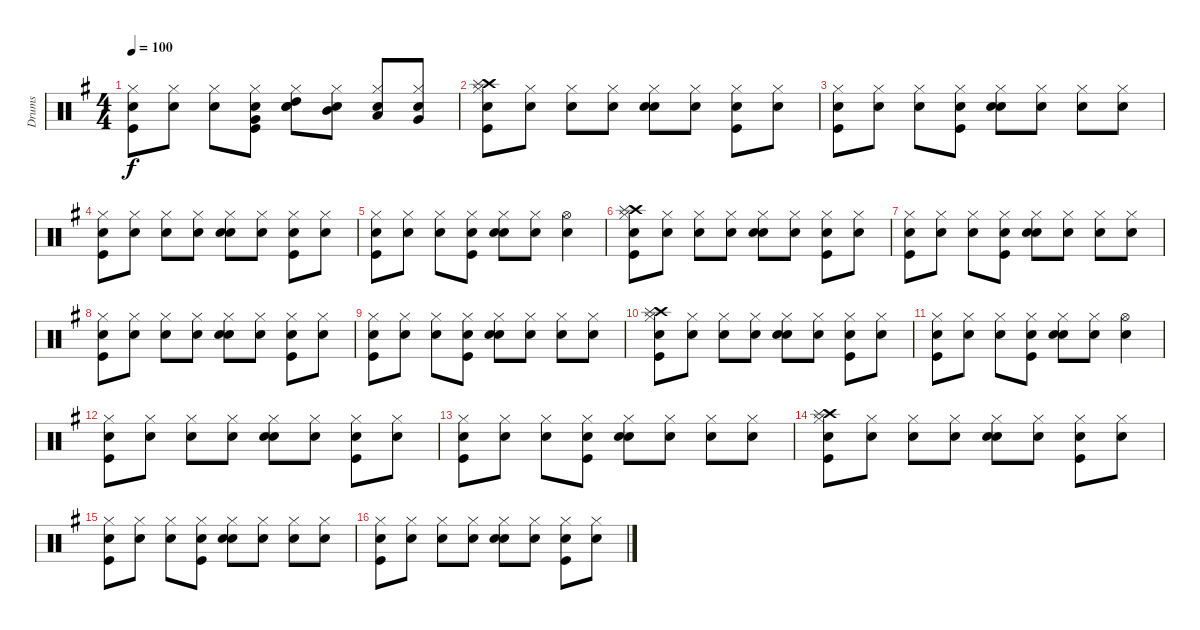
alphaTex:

\track ("Drums" "Drums") {instrument percussion}
\staff {score}
\articulation defaults
\ts (4 4)
\tempo 100
\clef neutral
\ks g
("Snare (hit)" "Kick (hit)" "Hi-Hat (closed)").8{dy f} ("Snare (hit)" "Hi-Hat (closed)").8 ("Snare (hit)" "Hi-Hat (closed)").8 ("Snare (hit)" "Very Low Tom (hit)" "Kick (hit)" "Hi-Hat (closed)").8 ("Snare (hit)" "High Tom (hit)" "Snare (hit) 2" "Hi-Hat (closed)").8 ("Snare (hit)" "Mid Tom (hit)" "Hi-Hat (closed)").8 ("Snare (hit)" "Low Tom (hit)" "Hi-Hat (closed)").8 ("Snare (hit)" "Very Low Tom (hit)" "Hi-Hat (closed)").8 |
("Snare (hit)" "Kick (hit)" "Crash high (hit)" "Splash (hit)" "Hi-Hat (closed)").8 ("Snare (hit)" "Hi-Hat (closed)").8 ("Snare (hit)" "Hi-Hat (closed)").8 ("Snare (hit)" "Hi-Hat (closed)").8 ("Snare (hit)" "Snare (hit) 2" "Hi-Hat (closed)").8 ("Snare (hit)" "Hi-Hat (closed)").8 ("Snare (hit)" "Kick (hit)" "Hi-Hat (closed)").8 ("Snare (hit)" "Hi-Hat (closed)").8 |
("Snare (hit)" "Kick (hit)" "Hi-Hat (closed)").8 ("Snare (hit)" "Hi-Hat (closed)").8 ("Snare (hit)" "Hi-Hat (closed)").8 ("Snare (hit)" "Kick (hit)" "Hi-Hat (closed)").8 ("Snare (hit)" "Snare (hit) 2" "Hi-Hat (closed)").8 ("Snare (hit)" "Hi-Hat (closed)").8 ("Snare (hit)" "Hi-Hat (closed)").8 ("Snare (hit)" "Hi-Hat (closed)").8 |
("Snare (hit)" "Kick (hit)" "Hi-Hat (closed)").8 ("Snare (hit)" "Hi-Hat (closed)").8 ("Snare (hit)" "Hi-Hat (closed)").8 ("Snare (hit)" "Hi-Hat (closed)").8 ("Snare (hit)" "Snare (hit) 2" "Hi-Hat (closed)").8 ("Snare (hit)" "Hi-Hat (closed)").8 ("Snare (hit)" "Kick (hit)" "Hi-Hat (closed)").8 ("Snare (hit)" "Hi-Hat (closed)").8 |
("Snare (hit)" "Kick (hit)" "Hi-Hat (closed)").8 ("Snare (hit)" "Hi-Hat (closed)").8 ("Snare (hit)" "Hi-Hat (closed)").8 ("Snare (hit)" "Kick (hit)" "Hi-Hat (closed)").8 ("Snare (hit)" "Snare (hit) 2" "Hi-Hat (closed)").8 ("Snare (hit)" "Hi-Hat (closed)").8 ("Snare (hit)" "Hi-Hat (open)").4 |
("Snare (hit)" "Kick (hit)" "Crash high (hit)" "Splash (hit)" "Hi-Hat (closed)").8 ("Snare (hit)" "Hi-Hat (closed)").8 ("Snare (hit)" "Hi-Hat (closed)").8 ("Snare (hit)" "Hi-Hat (closed)").8 ("Snare (hit)" "Snare (hit) 2" "Hi-Hat (closed)").8 ("Snare (hit)" "Hi-Hat (closed)").8 ("Snare (hit)" "Kick (hit)" "Hi-Hat (closed)").8 ("Snare (hit)" "Hi-Hat (closed)").8 |
("Snare (hit)" "Kick (hit)" "Hi-Hat (closed)").8 ("Snare (hit)" "Hi-Hat (closed)").8 ("Snare (hit)" "Hi-Hat (closed)").8 ("Snare (hit)" "Kick (hit)" "Hi-Hat (closed)").8 ("Snare (hit)" "Snare (hit) 2" "Hi-Hat (closed)").8 ("Snare (hit)" "Hi-Hat (closed)").8 ("Snare (hit)" "Hi-Hat (closed)").8 ("Snare (hit)" "Hi-Hat (closed)").8 |
("Snare (hit)" "Kick (hit)" "Hi-Hat (closed)").8 ("Snare (hit)" "Hi-Hat (closed)").8 ("Snare (hit)" "Hi-Hat (closed)").8 ("Snare (hit)" "Hi-Hat (closed)").8 ("Snare (hit)" "Snare (hit) 2" "Hi-Hat (closed)").8 ("Snare (hit)" "Hi-Hat (closed)").8 ("Snare (hit)" "Kick (hit)" "Hi-Hat (closed)").8 ("Snare (hit)" "Hi-Hat (closed)").8 |
("Snare (hit)" "Kick (hit)" "Hi-Hat (closed)").8 ("Snare (hit)" "Hi-Hat (closed)").8 ("Snare (hit)" "Hi-Hat (closed)").8 ("Snare (hit)" "Kick (hit)" "Hi-Hat (closed)").8 ("Snare (hit)" "Snare (hit) 2" "Hi-Hat (closed)").8 ("Snare (hit)" "Hi-Hat (closed)").8 ("Snare (hit)" "Hi-Hat (closed)").8 ("Snare (hit)" "Hi-Hat (closed)").8 |
("Snare (hit)" "Kick (hit)" "Crash high (hit)" "Splash (hit)" "Hi-Hat (closed)").8 ("Snare (hit)" "Hi-Hat (closed)").8 ("Snare (hit)" "Hi-Hat (closed)").8 ("Snare (hit)" "Hi-Hat (closed)").8 ("Snare (hit)" "Snare (hit) 2" "Hi-Hat (closed)").8 ("Snare (hit)" "Hi-Hat (closed)").8 ("Snare (hit)" "Kick (hit)" "Hi-Hat (closed)").8 ("Snare (hit)" "Hi-Hat (closed)").8 |
("Snare (hit)" "Kick (hit)" "Hi-Hat (closed)").8 ("Snare (hit)" "Hi-Hat (closed)").8 ("Snare (hit)" "Hi-Hat (closed)").8 ("Snare (hit)" "Kick (hit)" "Hi-Hat (closed)").8 ("Snare (hit)" "Snare (hit) 2" "Hi-Hat (closed)").8 ("Snare (hit)" "Hi-Hat (closed)").8 ("Snare (hit)" "Hi-Hat (open)").4 |
("Snare (hit)" "Kick (hit)" "Hi-Hat (closed)").8 ("Snare (hit)" "Hi-Hat (closed)").8 ("Snare (hit)" "Hi-Hat (closed)").8 ("Snare (hit)" "Hi-Hat (closed)").8 ("Snare (hit)" "Snare (hit) 2" "Hi-Hat (closed)").8 ("Snare (hit)" "Hi-Hat (closed)").8 ("Snare (hit)" "Kick (hit)" "Hi-Hat (closed)").8 ("Snare (hit)" "Hi-Hat (closed)").8 |
("Snare (hit)" "Kick (hit)" "Hi-Hat (closed)").8 ("Snare (hit)" "Hi-Hat (closed)").8 ("Snare (hit)" "Hi-Hat (closed)").8 ("Snare (hit)" "Kick (hit)" "Hi-Hat (closed)").8 ("Snare (hit)" "Snare (hit) 2" "Hi-Hat (closed)").8 ("Snare (hit)" "Hi-Hat (closed)").8 ("Snare (hit)" "Hi-Hat (closed)").8 ("Snare (hit)" "Hi-Hat (closed)").8 |
("Snare (hit)" "Kick (hit)" "Crash high (hit)" "Splash (hit)" "Hi-Hat (closed)").8 ("Snare (hit)" "Hi-Hat (closed)").8 ("Snare (hit)" "Hi-Hat (closed)").8 ("Snare (hit)" "Hi-Hat (closed)").8 ("Snare (hit)" "Snare (hit) 2" "Hi-Hat (closed)").8 ("Snare (hit)" "Hi-Hat (closed)").8 ("Snare (hit)" "Kick (hit)" "Hi-Hat (closed)").8 ("Snare (hit)" "Hi-Hat (closed)").8 |
("Snare (hit)" "Kick (hit)" "Hi-Hat (closed)").8 ("Snare (hit)" "Hi-Hat (closed)").8 ("Snare (hit)" "Hi-Hat (closed)").8 ("Snare (hit)" "Kick (hit)" "Hi-Hat (closed)").8 ("Snare (hit)" "Snare (hit) 2" "Hi-Hat (closed)").8 ("Snare (hit)" "Hi-Hat (closed)").8 ("Snare (hit)" "Hi-Hat (closed)").8 ("Snare (hit)" "Hi-Hat (closed)").8 |
("Snare (hit)" "Kick (hit)" "Hi-Hat (closed)").8 ("Snare (hit)" "Hi-Hat (closed)").8 ("Snare (hit)" "Hi-Hat (closed)").8 ("Snare (hit)" "Hi-Hat (closed)").8 ("Snare (hit)" "Snare (hit) 2" "Hi-Hat (closed)").8 ("Snare (hit)" "Hi-Hat (closed)").8 ("Snare (hit)" "Kick (hit)" "Hi-Hat (closed)").8 ("Snare (hit)" "Hi-Hat (closed)").8
